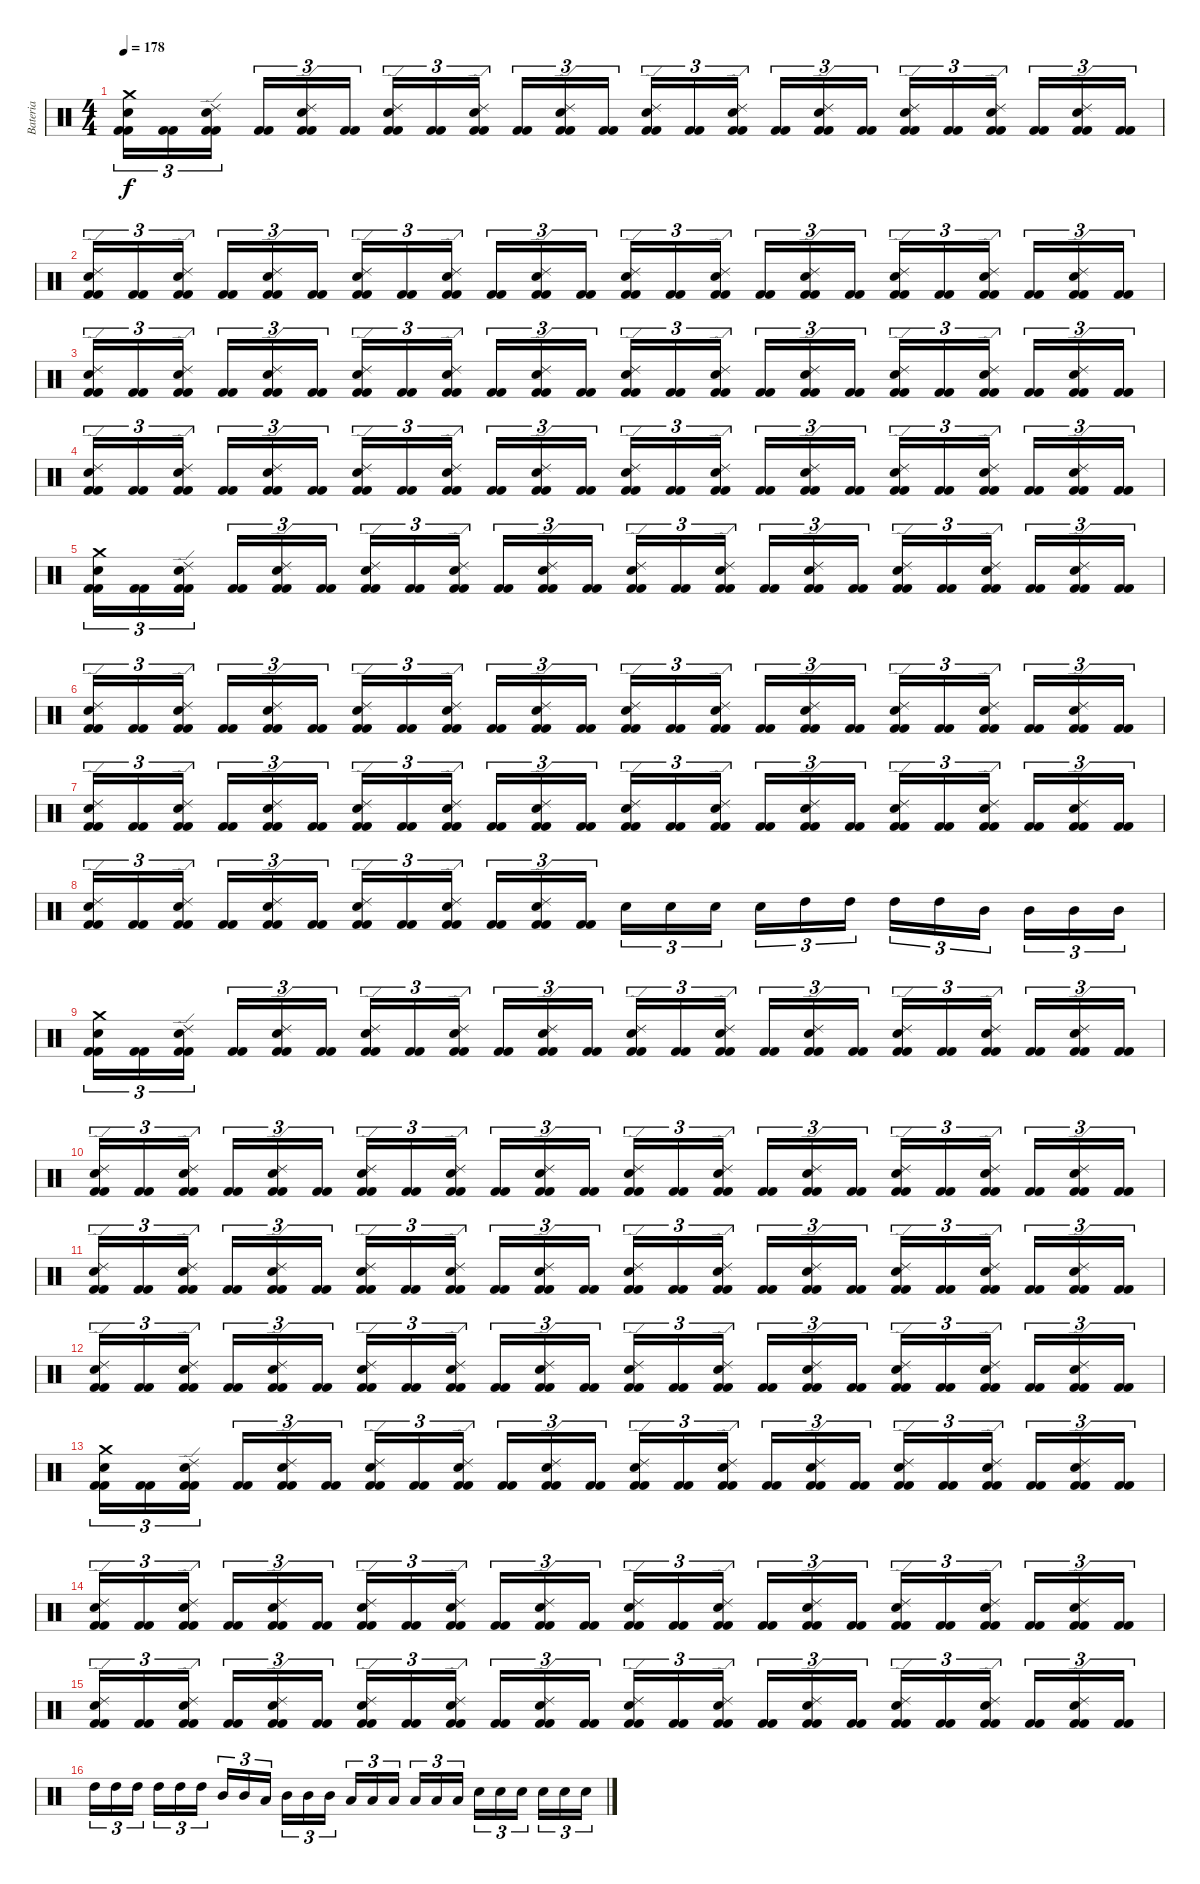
\track ("Bateria" "Bateria") {instrument percussion}
\staff {score}
\articulation defaults
\ts (4 4)
\tempo 178
\clef neutral
\ks c
("Kick (hit) 2" "Kick (hit) 2" "Snare (hit) 2" "Crash medium (hit)").16{tu (3 2) dy f} ("Kick (hit) 2" "Kick (hit) 2").16{tu (3 2)} ("Kick (hit) 2" "Kick (hit) 2" "Snare (hit) 2" "Ride (edge) 2").16{tu (3 2)} ("Kick (hit) 2" "Kick (hit) 2").16{tu (3 2)} ("Kick (hit) 2" "Kick (hit) 2" "Snare (hit) 2" "Ride (edge) 2").16{tu (3 2)} ("Kick (hit) 2" "Kick (hit) 2").16{tu (3 2)} ("Kick (hit) 2" "Kick (hit) 2" "Snare (hit) 2" "Ride (edge) 2").16{tu (3 2)} ("Kick (hit) 2" "Kick (hit) 2").16{tu (3 2)} ("Kick (hit) 2" "Kick (hit) 2" "Snare (hit) 2" "Ride (edge) 2").16{tu (3 2)} ("Kick (hit) 2" "Kick (hit) 2").16{tu (3 2)} ("Kick (hit) 2" "Kick (hit) 2" "Snare (hit) 2" "Ride (edge) 2").16{tu (3 2)} ("Kick (hit) 2" "Kick (hit) 2").16{tu (3 2)} ("Kick (hit) 2" "Kick (hit) 2" "Snare (hit) 2" "Ride (edge) 2").16{tu (3 2)} ("Kick (hit) 2" "Kick (hit) 2").16{tu (3 2)} ("Kick (hit) 2" "Kick (hit) 2" "Snare (hit) 2" "Ride (edge) 2").16{tu (3 2)} ("Kick (hit) 2" "Kick (hit) 2").16{tu (3 2)} ("Kick (hit) 2" "Kick (hit) 2" "Snare (hit) 2" "Ride (edge) 2").16{tu (3 2)} ("Kick (hit) 2" "Kick (hit) 2").16{tu (3 2)} ("Kick (hit) 2" "Kick (hit) 2" "Snare (hit) 2" "Ride (edge) 2").16{tu (3 2)} ("Kick (hit) 2" "Kick (hit) 2").16{tu (3 2)} ("Kick (hit) 2" "Kick (hit) 2" "Snare (hit) 2" "Ride (edge) 2").16{tu (3 2)} ("Kick (hit) 2" "Kick (hit) 2").16{tu (3 2)} ("Kick (hit) 2" "Kick (hit) 2" "Snare (hit) 2" "Ride (edge) 2").16{tu (3 2)} ("Kick (hit) 2" "Kick (hit) 2").16{tu (3 2)} |
("Kick (hit) 2" "Kick (hit) 2" "Snare (hit) 2" "Ride (edge) 2").16{tu (3 2)} ("Kick (hit) 2" "Kick (hit) 2").16{tu (3 2)} ("Kick (hit) 2" "Kick (hit) 2" "Snare (hit) 2" "Ride (edge) 2").16{tu (3 2)} ("Kick (hit) 2" "Kick (hit) 2").16{tu (3 2)} ("Kick (hit) 2" "Kick (hit) 2" "Snare (hit) 2" "Ride (edge) 2").16{tu (3 2)} ("Kick (hit) 2" "Kick (hit) 2").16{tu (3 2)} ("Kick (hit) 2" "Kick (hit) 2" "Snare (hit) 2" "Ride (edge) 2").16{tu (3 2)} ("Kick (hit) 2" "Kick (hit) 2").16{tu (3 2)} ("Kick (hit) 2" "Kick (hit) 2" "Snare (hit) 2" "Ride (edge) 2").16{tu (3 2)} ("Kick (hit) 2" "Kick (hit) 2").16{tu (3 2)} ("Kick (hit) 2" "Kick (hit) 2" "Snare (hit) 2" "Ride (edge) 2").16{tu (3 2)} ("Kick (hit) 2" "Kick (hit) 2").16{tu (3 2)} ("Kick (hit) 2" "Kick (hit) 2" "Snare (hit) 2" "Ride (edge) 2").16{tu (3 2)} ("Kick (hit) 2" "Kick (hit) 2").16{tu (3 2)} ("Kick (hit) 2" "Kick (hit) 2" "Snare (hit) 2" "Ride (edge) 2").16{tu (3 2)} ("Kick (hit) 2" "Kick (hit) 2").16{tu (3 2)} ("Kick (hit) 2" "Kick (hit) 2" "Snare (hit) 2" "Ride (edge) 2").16{tu (3 2)} ("Kick (hit) 2" "Kick (hit) 2").16{tu (3 2)} ("Kick (hit) 2" "Kick (hit) 2" "Snare (hit) 2" "Ride (edge) 2").16{tu (3 2)} ("Kick (hit) 2" "Kick (hit) 2").16{tu (3 2)} ("Kick (hit) 2" "Kick (hit) 2" "Snare (hit) 2" "Ride (edge) 2").16{tu (3 2)} ("Kick (hit) 2" "Kick (hit) 2").16{tu (3 2)} ("Kick (hit) 2" "Kick (hit) 2" "Snare (hit) 2" "Ride (edge) 2").16{tu (3 2)} ("Kick (hit) 2" "Kick (hit) 2").16{tu (3 2)} |
("Kick (hit) 2" "Kick (hit) 2" "Snare (hit) 2" "Ride (edge) 2").16{tu (3 2)} ("Kick (hit) 2" "Kick (hit) 2").16{tu (3 2)} ("Kick (hit) 2" "Kick (hit) 2" "Snare (hit) 2" "Ride (edge) 2").16{tu (3 2)} ("Kick (hit) 2" "Kick (hit) 2").16{tu (3 2)} ("Kick (hit) 2" "Kick (hit) 2" "Snare (hit) 2" "Ride (edge) 2").16{tu (3 2)} ("Kick (hit) 2" "Kick (hit) 2").16{tu (3 2)} ("Kick (hit) 2" "Kick (hit) 2" "Snare (hit) 2" "Ride (edge) 2").16{tu (3 2)} ("Kick (hit) 2" "Kick (hit) 2").16{tu (3 2)} ("Kick (hit) 2" "Kick (hit) 2" "Snare (hit) 2" "Ride (edge) 2").16{tu (3 2)} ("Kick (hit) 2" "Kick (hit) 2").16{tu (3 2)} ("Kick (hit) 2" "Kick (hit) 2" "Snare (hit) 2" "Ride (edge) 2").16{tu (3 2)} ("Kick (hit) 2" "Kick (hit) 2").16{tu (3 2)} ("Kick (hit) 2" "Kick (hit) 2" "Snare (hit) 2" "Ride (edge) 2").16{tu (3 2)} ("Kick (hit) 2" "Kick (hit) 2").16{tu (3 2)} ("Kick (hit) 2" "Kick (hit) 2" "Snare (hit) 2" "Ride (edge) 2").16{tu (3 2)} ("Kick (hit) 2" "Kick (hit) 2").16{tu (3 2)} ("Kick (hit) 2" "Kick (hit) 2" "Snare (hit) 2" "Ride (edge) 2").16{tu (3 2)} ("Kick (hit) 2" "Kick (hit) 2").16{tu (3 2)} ("Kick (hit) 2" "Kick (hit) 2" "Snare (hit) 2" "Ride (edge) 2").16{tu (3 2)} ("Kick (hit) 2" "Kick (hit) 2").16{tu (3 2)} ("Kick (hit) 2" "Kick (hit) 2" "Snare (hit) 2" "Ride (edge) 2").16{tu (3 2)} ("Kick (hit) 2" "Kick (hit) 2").16{tu (3 2)} ("Kick (hit) 2" "Kick (hit) 2" "Snare (hit) 2" "Ride (edge) 2").16{tu (3 2)} ("Kick (hit) 2" "Kick (hit) 2").16{tu (3 2)} |
("Kick (hit) 2" "Kick (hit) 2" "Snare (hit) 2" "Ride (edge) 2").16{tu (3 2)} ("Kick (hit) 2" "Kick (hit) 2").16{tu (3 2)} ("Kick (hit) 2" "Kick (hit) 2" "Snare (hit) 2" "Ride (edge) 2").16{tu (3 2)} ("Kick (hit) 2" "Kick (hit) 2").16{tu (3 2)} ("Kick (hit) 2" "Kick (hit) 2" "Snare (hit) 2" "Ride (edge) 2").16{tu (3 2)} ("Kick (hit) 2" "Kick (hit) 2").16{tu (3 2)} ("Kick (hit) 2" "Kick (hit) 2" "Snare (hit) 2" "Ride (edge) 2").16{tu (3 2)} ("Kick (hit) 2" "Kick (hit) 2").16{tu (3 2)} ("Kick (hit) 2" "Kick (hit) 2" "Snare (hit) 2" "Ride (edge) 2").16{tu (3 2)} ("Kick (hit) 2" "Kick (hit) 2").16{tu (3 2)} ("Kick (hit) 2" "Kick (hit) 2" "Snare (hit) 2" "Ride (edge) 2").16{tu (3 2)} ("Kick (hit) 2" "Kick (hit) 2").16{tu (3 2)} ("Kick (hit) 2" "Kick (hit) 2" "Snare (hit) 2" "Ride (edge) 2").16{tu (3 2)} ("Kick (hit) 2" "Kick (hit) 2").16{tu (3 2)} ("Kick (hit) 2" "Kick (hit) 2" "Snare (hit) 2" "Ride (edge) 2").16{tu (3 2)} ("Kick (hit) 2" "Kick (hit) 2").16{tu (3 2)} ("Kick (hit) 2" "Kick (hit) 2" "Snare (hit) 2" "Ride (edge) 2").16{tu (3 2)} ("Kick (hit) 2" "Kick (hit) 2").16{tu (3 2)} ("Kick (hit) 2" "Kick (hit) 2" "Snare (hit) 2" "Ride (edge) 2").16{tu (3 2)} ("Kick (hit) 2" "Kick (hit) 2").16{tu (3 2)} ("Kick (hit) 2" "Kick (hit) 2" "Snare (hit) 2" "Ride (edge) 2").16{tu (3 2)} ("Kick (hit) 2" "Kick (hit) 2").16{tu (3 2)} ("Kick (hit) 2" "Kick (hit) 2" "Snare (hit) 2" "Ride (edge) 2").16{tu (3 2)} ("Kick (hit) 2" "Kick (hit) 2").16{tu (3 2)} |
("Kick (hit) 2" "Kick (hit) 2" "Snare (hit) 2" "Crash medium (hit)").16{tu (3 2)} ("Kick (hit) 2" "Kick (hit) 2").16{tu (3 2)} ("Kick (hit) 2" "Kick (hit) 2" "Snare (hit) 2" "Ride (edge) 2").16{tu (3 2)} ("Kick (hit) 2" "Kick (hit) 2").16{tu (3 2)} ("Kick (hit) 2" "Kick (hit) 2" "Snare (hit) 2" "Ride (edge) 2").16{tu (3 2)} ("Kick (hit) 2" "Kick (hit) 2").16{tu (3 2)} ("Kick (hit) 2" "Kick (hit) 2" "Snare (hit) 2" "Ride (edge) 2").16{tu (3 2)} ("Kick (hit) 2" "Kick (hit) 2").16{tu (3 2)} ("Kick (hit) 2" "Kick (hit) 2" "Snare (hit) 2" "Ride (edge) 2").16{tu (3 2)} ("Kick (hit) 2" "Kick (hit) 2").16{tu (3 2)} ("Kick (hit) 2" "Kick (hit) 2" "Snare (hit) 2" "Ride (edge) 2").16{tu (3 2)} ("Kick (hit) 2" "Kick (hit) 2").16{tu (3 2)} ("Kick (hit) 2" "Kick (hit) 2" "Snare (hit) 2" "Ride (edge) 2").16{tu (3 2)} ("Kick (hit) 2" "Kick (hit) 2").16{tu (3 2)} ("Kick (hit) 2" "Kick (hit) 2" "Snare (hit) 2" "Ride (edge) 2").16{tu (3 2)} ("Kick (hit) 2" "Kick (hit) 2").16{tu (3 2)} ("Kick (hit) 2" "Kick (hit) 2" "Snare (hit) 2" "Ride (edge) 2").16{tu (3 2)} ("Kick (hit) 2" "Kick (hit) 2").16{tu (3 2)} ("Kick (hit) 2" "Kick (hit) 2" "Snare (hit) 2" "Ride (edge) 2").16{tu (3 2)} ("Kick (hit) 2" "Kick (hit) 2").16{tu (3 2)} ("Kick (hit) 2" "Kick (hit) 2" "Snare (hit) 2" "Ride (edge) 2").16{tu (3 2)} ("Kick (hit) 2" "Kick (hit) 2").16{tu (3 2)} ("Kick (hit) 2" "Kick (hit) 2" "Snare (hit) 2" "Ride (edge) 2").16{tu (3 2)} ("Kick (hit) 2" "Kick (hit) 2").16{tu (3 2)} |
("Kick (hit) 2" "Kick (hit) 2" "Snare (hit) 2" "Ride (edge) 2").16{tu (3 2)} ("Kick (hit) 2" "Kick (hit) 2").16{tu (3 2)} ("Kick (hit) 2" "Kick (hit) 2" "Snare (hit) 2" "Ride (edge) 2").16{tu (3 2)} ("Kick (hit) 2" "Kick (hit) 2").16{tu (3 2)} ("Kick (hit) 2" "Kick (hit) 2" "Snare (hit) 2" "Ride (edge) 2").16{tu (3 2)} ("Kick (hit) 2" "Kick (hit) 2").16{tu (3 2)} ("Kick (hit) 2" "Kick (hit) 2" "Snare (hit) 2" "Ride (edge) 2").16{tu (3 2)} ("Kick (hit) 2" "Kick (hit) 2").16{tu (3 2)} ("Kick (hit) 2" "Kick (hit) 2" "Snare (hit) 2" "Ride (edge) 2").16{tu (3 2)} ("Kick (hit) 2" "Kick (hit) 2").16{tu (3 2)} ("Kick (hit) 2" "Kick (hit) 2" "Snare (hit) 2" "Ride (edge) 2").16{tu (3 2)} ("Kick (hit) 2" "Kick (hit) 2").16{tu (3 2)} ("Kick (hit) 2" "Kick (hit) 2" "Snare (hit) 2" "Ride (edge) 2").16{tu (3 2)} ("Kick (hit) 2" "Kick (hit) 2").16{tu (3 2)} ("Kick (hit) 2" "Kick (hit) 2" "Snare (hit) 2" "Ride (edge) 2").16{tu (3 2)} ("Kick (hit) 2" "Kick (hit) 2").16{tu (3 2)} ("Kick (hit) 2" "Kick (hit) 2" "Snare (hit) 2" "Ride (edge) 2").16{tu (3 2)} ("Kick (hit) 2" "Kick (hit) 2").16{tu (3 2)} ("Kick (hit) 2" "Kick (hit) 2" "Snare (hit) 2" "Ride (edge) 2").16{tu (3 2)} ("Kick (hit) 2" "Kick (hit) 2").16{tu (3 2)} ("Kick (hit) 2" "Kick (hit) 2" "Snare (hit) 2" "Ride (edge) 2").16{tu (3 2)} ("Kick (hit) 2" "Kick (hit) 2").16{tu (3 2)} ("Kick (hit) 2" "Kick (hit) 2" "Snare (hit) 2" "Ride (edge) 2").16{tu (3 2)} ("Kick (hit) 2" "Kick (hit) 2").16{tu (3 2)} |
("Kick (hit) 2" "Kick (hit) 2" "Snare (hit) 2" "Ride (edge) 2").16{tu (3 2)} ("Kick (hit) 2" "Kick (hit) 2").16{tu (3 2)} ("Kick (hit) 2" "Kick (hit) 2" "Snare (hit) 2" "Ride (edge) 2").16{tu (3 2)} ("Kick (hit) 2" "Kick (hit) 2").16{tu (3 2)} ("Kick (hit) 2" "Kick (hit) 2" "Snare (hit) 2" "Ride (edge) 2").16{tu (3 2)} ("Kick (hit) 2" "Kick (hit) 2").16{tu (3 2)} ("Kick (hit) 2" "Kick (hit) 2" "Snare (hit) 2" "Ride (edge) 2").16{tu (3 2)} ("Kick (hit) 2" "Kick (hit) 2").16{tu (3 2)} ("Kick (hit) 2" "Kick (hit) 2" "Snare (hit) 2" "Ride (edge) 2").16{tu (3 2)} ("Kick (hit) 2" "Kick (hit) 2").16{tu (3 2)} ("Kick (hit) 2" "Kick (hit) 2" "Snare (hit) 2" "Ride (edge) 2").16{tu (3 2)} ("Kick (hit) 2" "Kick (hit) 2").16{tu (3 2)} ("Kick (hit) 2" "Kick (hit) 2" "Snare (hit) 2" "Ride (edge) 2").16{tu (3 2)} ("Kick (hit) 2" "Kick (hit) 2").16{tu (3 2)} ("Kick (hit) 2" "Kick (hit) 2" "Snare (hit) 2" "Ride (edge) 2").16{tu (3 2)} ("Kick (hit) 2" "Kick (hit) 2").16{tu (3 2)} ("Kick (hit) 2" "Kick (hit) 2" "Snare (hit) 2" "Ride (edge) 2").16{tu (3 2)} ("Kick (hit) 2" "Kick (hit) 2").16{tu (3 2)} ("Kick (hit) 2" "Kick (hit) 2" "Snare (hit) 2" "Ride (edge) 2").16{tu (3 2)} ("Kick (hit) 2" "Kick (hit) 2").16{tu (3 2)} ("Kick (hit) 2" "Kick (hit) 2" "Snare (hit) 2" "Ride (edge) 2").16{tu (3 2)} ("Kick (hit) 2" "Kick (hit) 2").16{tu (3 2)} ("Kick (hit) 2" "Kick (hit) 2" "Snare (hit) 2" "Ride (edge) 2").16{tu (3 2)} ("Kick (hit) 2" "Kick (hit) 2").16{tu (3 2)} |
("Kick (hit) 2" "Kick (hit) 2" "Snare (hit) 2" "Ride (edge) 2").16{tu (3 2)} ("Kick (hit) 2" "Kick (hit) 2").16{tu (3 2)} ("Kick (hit) 2" "Kick (hit) 2" "Snare (hit) 2" "Ride (edge) 2").16{tu (3 2)} ("Kick (hit) 2" "Kick (hit) 2").16{tu (3 2)} ("Kick (hit) 2" "Kick (hit) 2" "Snare (hit) 2" "Ride (edge) 2").16{tu (3 2)} ("Kick (hit) 2" "Kick (hit) 2").16{tu (3 2)} ("Kick (hit) 2" "Kick (hit) 2" "Snare (hit) 2" "Ride (edge) 2").16{tu (3 2)} ("Kick (hit) 2" "Kick (hit) 2").16{tu (3 2)} ("Kick (hit) 2" "Kick (hit) 2" "Snare (hit) 2" "Ride (edge) 2").16{tu (3 2)} ("Kick (hit) 2" "Kick (hit) 2").16{tu (3 2)} ("Kick (hit) 2" "Kick (hit) 2" "Snare (hit) 2" "Ride (edge) 2").16{tu (3 2)} ("Kick (hit) 2" "Kick (hit) 2").16{tu (3 2)} "Snare (hit) 2".16{tu (3 2)} "Snare (hit) 2".16{tu (3 2)} "Snare (hit) 2".16{tu (3 2)} "Snare (hit) 2".16{tu (3 2)} "High Tom (hit)".16{tu (3 2)} "High Tom (hit)".16{tu (3 2)} "High Tom (hit)".16{tu (3 2)} "High Tom (hit)".16{tu (3 2)} "Mid Tom (hit)".16{tu (3 2)} "Mid Tom (hit)".16{tu (3 2)} "Mid Tom (hit)".16{tu (3 2)} "Mid Tom (hit)".16{tu (3 2)} |
("Kick (hit) 2" "Kick (hit) 2" "Snare (hit) 2" "Crash medium (hit)").16{tu (3 2)} ("Kick (hit) 2" "Kick (hit) 2").16{tu (3 2)} ("Kick (hit) 2" "Kick (hit) 2" "Snare (hit) 2" "Ride (edge) 2").16{tu (3 2)} ("Kick (hit) 2" "Kick (hit) 2").16{tu (3 2)} ("Kick (hit) 2" "Kick (hit) 2" "Snare (hit) 2" "Ride (edge) 2").16{tu (3 2)} ("Kick (hit) 2" "Kick (hit) 2").16{tu (3 2)} ("Kick (hit) 2" "Kick (hit) 2" "Snare (hit) 2" "Ride (edge) 2").16{tu (3 2)} ("Kick (hit) 2" "Kick (hit) 2").16{tu (3 2)} ("Kick (hit) 2" "Kick (hit) 2" "Snare (hit) 2" "Ride (edge) 2").16{tu (3 2)} ("Kick (hit) 2" "Kick (hit) 2").16{tu (3 2)} ("Kick (hit) 2" "Kick (hit) 2" "Snare (hit) 2" "Ride (edge) 2").16{tu (3 2)} ("Kick (hit) 2" "Kick (hit) 2").16{tu (3 2)} ("Kick (hit) 2" "Kick (hit) 2" "Snare (hit) 2" "Ride (edge) 2").16{tu (3 2)} ("Kick (hit) 2" "Kick (hit) 2").16{tu (3 2)} ("Kick (hit) 2" "Kick (hit) 2" "Snare (hit) 2" "Ride (edge) 2").16{tu (3 2)} ("Kick (hit) 2" "Kick (hit) 2").16{tu (3 2)} ("Kick (hit) 2" "Kick (hit) 2" "Snare (hit) 2" "Ride (edge) 2").16{tu (3 2)} ("Kick (hit) 2" "Kick (hit) 2").16{tu (3 2)} ("Kick (hit) 2" "Kick (hit) 2" "Snare (hit) 2" "Ride (edge) 2").16{tu (3 2)} ("Kick (hit) 2" "Kick (hit) 2").16{tu (3 2)} ("Kick (hit) 2" "Kick (hit) 2" "Snare (hit) 2" "Ride (edge) 2").16{tu (3 2)} ("Kick (hit) 2" "Kick (hit) 2").16{tu (3 2)} ("Kick (hit) 2" "Kick (hit) 2" "Snare (hit) 2" "Ride (edge) 2").16{tu (3 2)} ("Kick (hit) 2" "Kick (hit) 2").16{tu (3 2)} |
("Kick (hit) 2" "Kick (hit) 2" "Snare (hit) 2" "Ride (edge) 2").16{tu (3 2)} ("Kick (hit) 2" "Kick (hit) 2").16{tu (3 2)} ("Kick (hit) 2" "Kick (hit) 2" "Snare (hit) 2" "Ride (edge) 2").16{tu (3 2)} ("Kick (hit) 2" "Kick (hit) 2").16{tu (3 2)} ("Kick (hit) 2" "Kick (hit) 2" "Snare (hit) 2" "Ride (edge) 2").16{tu (3 2)} ("Kick (hit) 2" "Kick (hit) 2").16{tu (3 2)} ("Kick (hit) 2" "Kick (hit) 2" "Snare (hit) 2" "Ride (edge) 2").16{tu (3 2)} ("Kick (hit) 2" "Kick (hit) 2").16{tu (3 2)} ("Kick (hit) 2" "Kick (hit) 2" "Snare (hit) 2" "Ride (edge) 2").16{tu (3 2)} ("Kick (hit) 2" "Kick (hit) 2").16{tu (3 2)} ("Kick (hit) 2" "Kick (hit) 2" "Snare (hit) 2" "Ride (edge) 2").16{tu (3 2)} ("Kick (hit) 2" "Kick (hit) 2").16{tu (3 2)} ("Kick (hit) 2" "Kick (hit) 2" "Snare (hit) 2" "Ride (edge) 2").16{tu (3 2)} ("Kick (hit) 2" "Kick (hit) 2").16{tu (3 2)} ("Kick (hit) 2" "Kick (hit) 2" "Snare (hit) 2" "Ride (edge) 2").16{tu (3 2)} ("Kick (hit) 2" "Kick (hit) 2").16{tu (3 2)} ("Kick (hit) 2" "Kick (hit) 2" "Snare (hit) 2" "Ride (edge) 2").16{tu (3 2)} ("Kick (hit) 2" "Kick (hit) 2").16{tu (3 2)} ("Kick (hit) 2" "Kick (hit) 2" "Snare (hit) 2" "Ride (edge) 2").16{tu (3 2)} ("Kick (hit) 2" "Kick (hit) 2").16{tu (3 2)} ("Kick (hit) 2" "Kick (hit) 2" "Snare (hit) 2" "Ride (edge) 2").16{tu (3 2)} ("Kick (hit) 2" "Kick (hit) 2").16{tu (3 2)} ("Kick (hit) 2" "Kick (hit) 2" "Snare (hit) 2" "Ride (edge) 2").16{tu (3 2)} ("Kick (hit) 2" "Kick (hit) 2").16{tu (3 2)} |
("Kick (hit) 2" "Kick (hit) 2" "Snare (hit) 2" "Ride (edge) 2").16{tu (3 2)} ("Kick (hit) 2" "Kick (hit) 2").16{tu (3 2)} ("Kick (hit) 2" "Kick (hit) 2" "Snare (hit) 2" "Ride (edge) 2").16{tu (3 2)} ("Kick (hit) 2" "Kick (hit) 2").16{tu (3 2)} ("Kick (hit) 2" "Kick (hit) 2" "Snare (hit) 2" "Ride (edge) 2").16{tu (3 2)} ("Kick (hit) 2" "Kick (hit) 2").16{tu (3 2)} ("Kick (hit) 2" "Kick (hit) 2" "Snare (hit) 2" "Ride (edge) 2").16{tu (3 2)} ("Kick (hit) 2" "Kick (hit) 2").16{tu (3 2)} ("Kick (hit) 2" "Kick (hit) 2" "Snare (hit) 2" "Ride (edge) 2").16{tu (3 2)} ("Kick (hit) 2" "Kick (hit) 2").16{tu (3 2)} ("Kick (hit) 2" "Kick (hit) 2" "Snare (hit) 2" "Ride (edge) 2").16{tu (3 2)} ("Kick (hit) 2" "Kick (hit) 2").16{tu (3 2)} ("Kick (hit) 2" "Kick (hit) 2" "Snare (hit) 2" "Ride (edge) 2").16{tu (3 2)} ("Kick (hit) 2" "Kick (hit) 2").16{tu (3 2)} ("Kick (hit) 2" "Kick (hit) 2" "Snare (hit) 2" "Ride (edge) 2").16{tu (3 2)} ("Kick (hit) 2" "Kick (hit) 2").16{tu (3 2)} ("Kick (hit) 2" "Kick (hit) 2" "Snare (hit) 2" "Ride (edge) 2").16{tu (3 2)} ("Kick (hit) 2" "Kick (hit) 2").16{tu (3 2)} ("Kick (hit) 2" "Kick (hit) 2" "Snare (hit) 2" "Ride (edge) 2").16{tu (3 2)} ("Kick (hit) 2" "Kick (hit) 2").16{tu (3 2)} ("Kick (hit) 2" "Kick (hit) 2" "Snare (hit) 2" "Ride (edge) 2").16{tu (3 2)} ("Kick (hit) 2" "Kick (hit) 2").16{tu (3 2)} ("Kick (hit) 2" "Kick (hit) 2" "Snare (hit) 2" "Ride (edge) 2").16{tu (3 2)} ("Kick (hit) 2" "Kick (hit) 2").16{tu (3 2)} |
("Kick (hit) 2" "Kick (hit) 2" "Snare (hit) 2" "Ride (edge) 2").16{tu (3 2)} ("Kick (hit) 2" "Kick (hit) 2").16{tu (3 2)} ("Kick (hit) 2" "Kick (hit) 2" "Snare (hit) 2" "Ride (edge) 2").16{tu (3 2)} ("Kick (hit) 2" "Kick (hit) 2").16{tu (3 2)} ("Kick (hit) 2" "Kick (hit) 2" "Snare (hit) 2" "Ride (edge) 2").16{tu (3 2)} ("Kick (hit) 2" "Kick (hit) 2").16{tu (3 2)} ("Kick (hit) 2" "Kick (hit) 2" "Snare (hit) 2" "Ride (edge) 2").16{tu (3 2)} ("Kick (hit) 2" "Kick (hit) 2").16{tu (3 2)} ("Kick (hit) 2" "Kick (hit) 2" "Snare (hit) 2" "Ride (edge) 2").16{tu (3 2)} ("Kick (hit) 2" "Kick (hit) 2").16{tu (3 2)} ("Kick (hit) 2" "Kick (hit) 2" "Snare (hit) 2" "Ride (edge) 2").16{tu (3 2)} ("Kick (hit) 2" "Kick (hit) 2").16{tu (3 2)} ("Kick (hit) 2" "Kick (hit) 2" "Snare (hit) 2" "Ride (edge) 2").16{tu (3 2)} ("Kick (hit) 2" "Kick (hit) 2").16{tu (3 2)} ("Kick (hit) 2" "Kick (hit) 2" "Snare (hit) 2" "Ride (edge) 2").16{tu (3 2)} ("Kick (hit) 2" "Kick (hit) 2").16{tu (3 2)} ("Kick (hit) 2" "Kick (hit) 2" "Snare (hit) 2" "Ride (edge) 2").16{tu (3 2)} ("Kick (hit) 2" "Kick (hit) 2").16{tu (3 2)} ("Kick (hit) 2" "Kick (hit) 2" "Snare (hit) 2" "Ride (edge) 2").16{tu (3 2)} ("Kick (hit) 2" "Kick (hit) 2").16{tu (3 2)} ("Kick (hit) 2" "Kick (hit) 2" "Snare (hit) 2" "Ride (edge) 2").16{tu (3 2)} ("Kick (hit) 2" "Kick (hit) 2").16{tu (3 2)} ("Kick (hit) 2" "Kick (hit) 2" "Snare (hit) 2" "Ride (edge) 2").16{tu (3 2)} ("Kick (hit) 2" "Kick (hit) 2").16{tu (3 2)} |
("Kick (hit) 2" "Kick (hit) 2" "Snare (hit) 2" "Crash medium (hit)").16{tu (3 2)} ("Kick (hit) 2" "Kick (hit) 2").16{tu (3 2)} ("Kick (hit) 2" "Kick (hit) 2" "Snare (hit) 2" "Ride (edge) 2").16{tu (3 2)} ("Kick (hit) 2" "Kick (hit) 2").16{tu (3 2)} ("Kick (hit) 2" "Kick (hit) 2" "Snare (hit) 2" "Ride (edge) 2").16{tu (3 2)} ("Kick (hit) 2" "Kick (hit) 2").16{tu (3 2)} ("Kick (hit) 2" "Kick (hit) 2" "Snare (hit) 2" "Ride (edge) 2").16{tu (3 2)} ("Kick (hit) 2" "Kick (hit) 2").16{tu (3 2)} ("Kick (hit) 2" "Kick (hit) 2" "Snare (hit) 2" "Ride (edge) 2").16{tu (3 2)} ("Kick (hit) 2" "Kick (hit) 2").16{tu (3 2)} ("Kick (hit) 2" "Kick (hit) 2" "Snare (hit) 2" "Ride (edge) 2").16{tu (3 2)} ("Kick (hit) 2" "Kick (hit) 2").16{tu (3 2)} ("Kick (hit) 2" "Kick (hit) 2" "Snare (hit) 2" "Ride (edge) 2").16{tu (3 2)} ("Kick (hit) 2" "Kick (hit) 2").16{tu (3 2)} ("Kick (hit) 2" "Kick (hit) 2" "Snare (hit) 2" "Ride (edge) 2").16{tu (3 2)} ("Kick (hit) 2" "Kick (hit) 2").16{tu (3 2)} ("Kick (hit) 2" "Kick (hit) 2" "Snare (hit) 2" "Ride (edge) 2").16{tu (3 2)} ("Kick (hit) 2" "Kick (hit) 2").16{tu (3 2)} ("Kick (hit) 2" "Kick (hit) 2" "Snare (hit) 2" "Ride (edge) 2").16{tu (3 2)} ("Kick (hit) 2" "Kick (hit) 2").16{tu (3 2)} ("Kick (hit) 2" "Kick (hit) 2" "Snare (hit) 2" "Ride (edge) 2").16{tu (3 2)} ("Kick (hit) 2" "Kick (hit) 2").16{tu (3 2)} ("Kick (hit) 2" "Kick (hit) 2" "Snare (hit) 2" "Ride (edge) 2").16{tu (3 2)} ("Kick (hit) 2" "Kick (hit) 2").16{tu (3 2)} |
("Kick (hit) 2" "Kick (hit) 2" "Snare (hit) 2" "Ride (edge) 2").16{tu (3 2)} ("Kick (hit) 2" "Kick (hit) 2").16{tu (3 2)} ("Kick (hit) 2" "Kick (hit) 2" "Snare (hit) 2" "Ride (edge) 2").16{tu (3 2)} ("Kick (hit) 2" "Kick (hit) 2").16{tu (3 2)} ("Kick (hit) 2" "Kick (hit) 2" "Snare (hit) 2" "Ride (edge) 2").16{tu (3 2)} ("Kick (hit) 2" "Kick (hit) 2").16{tu (3 2)} ("Kick (hit) 2" "Kick (hit) 2" "Snare (hit) 2" "Ride (edge) 2").16{tu (3 2)} ("Kick (hit) 2" "Kick (hit) 2").16{tu (3 2)} ("Kick (hit) 2" "Kick (hit) 2" "Snare (hit) 2" "Ride (edge) 2").16{tu (3 2)} ("Kick (hit) 2" "Kick (hit) 2").16{tu (3 2)} ("Kick (hit) 2" "Kick (hit) 2" "Snare (hit) 2" "Ride (edge) 2").16{tu (3 2)} ("Kick (hit) 2" "Kick (hit) 2").16{tu (3 2)} ("Kick (hit) 2" "Kick (hit) 2" "Snare (hit) 2" "Ride (edge) 2").16{tu (3 2)} ("Kick (hit) 2" "Kick (hit) 2").16{tu (3 2)} ("Kick (hit) 2" "Kick (hit) 2" "Snare (hit) 2" "Ride (edge) 2").16{tu (3 2)} ("Kick (hit) 2" "Kick (hit) 2").16{tu (3 2)} ("Kick (hit) 2" "Kick (hit) 2" "Snare (hit) 2" "Ride (edge) 2").16{tu (3 2)} ("Kick (hit) 2" "Kick (hit) 2").16{tu (3 2)} ("Kick (hit) 2" "Kick (hit) 2" "Snare (hit) 2" "Ride (edge) 2").16{tu (3 2)} ("Kick (hit) 2" "Kick (hit) 2").16{tu (3 2)} ("Kick (hit) 2" "Kick (hit) 2" "Snare (hit) 2" "Ride (edge) 2").16{tu (3 2)} ("Kick (hit) 2" "Kick (hit) 2").16{tu (3 2)} ("Kick (hit) 2" "Kick (hit) 2" "Snare (hit) 2" "Ride (edge) 2").16{tu (3 2)} ("Kick (hit) 2" "Kick (hit) 2").16{tu (3 2)} |
("Kick (hit) 2" "Kick (hit) 2" "Snare (hit) 2" "Ride (edge) 2").16{tu (3 2)} ("Kick (hit) 2" "Kick (hit) 2").16{tu (3 2)} ("Kick (hit) 2" "Kick (hit) 2" "Snare (hit) 2" "Ride (edge) 2").16{tu (3 2)} ("Kick (hit) 2" "Kick (hit) 2").16{tu (3 2)} ("Kick (hit) 2" "Kick (hit) 2" "Snare (hit) 2" "Ride (edge) 2").16{tu (3 2)} ("Kick (hit) 2" "Kick (hit) 2").16{tu (3 2)} ("Kick (hit) 2" "Kick (hit) 2" "Snare (hit) 2" "Ride (edge) 2").16{tu (3 2)} ("Kick (hit) 2" "Kick (hit) 2").16{tu (3 2)} ("Kick (hit) 2" "Kick (hit) 2" "Snare (hit) 2" "Ride (edge) 2").16{tu (3 2)} ("Kick (hit) 2" "Kick (hit) 2").16{tu (3 2)} ("Kick (hit) 2" "Kick (hit) 2" "Snare (hit) 2" "Ride (edge) 2").16{tu (3 2)} ("Kick (hit) 2" "Kick (hit) 2").16{tu (3 2)} ("Kick (hit) 2" "Kick (hit) 2" "Snare (hit) 2" "Ride (edge) 2").16{tu (3 2)} ("Kick (hit) 2" "Kick (hit) 2").16{tu (3 2)} ("Kick (hit) 2" "Kick (hit) 2" "Snare (hit) 2" "Ride (edge) 2").16{tu (3 2)} ("Kick (hit) 2" "Kick (hit) 2").16{tu (3 2)} ("Kick (hit) 2" "Kick (hit) 2" "Snare (hit) 2" "Ride (edge) 2").16{tu (3 2)} ("Kick (hit) 2" "Kick (hit) 2").16{tu (3 2)} ("Kick (hit) 2" "Kick (hit) 2" "Snare (hit) 2" "Ride (edge) 2").16{tu (3 2)} ("Kick (hit) 2" "Kick (hit) 2").16{tu (3 2)} ("Kick (hit) 2" "Kick (hit) 2" "Snare (hit) 2" "Ride (edge) 2").16{tu (3 2)} ("Kick (hit) 2" "Kick (hit) 2").16{tu (3 2)} ("Kick (hit) 2" "Kick (hit) 2" "Snare (hit) 2" "Ride (edge) 2").16{tu (3 2)} ("Kick (hit) 2" "Kick (hit) 2").16{tu (3 2)} |
"High Tom (hit)".16{tu (3 2)} "High Tom (hit)".16{tu (3 2)} "High Tom (hit)".16{tu (3 2)} "High Tom (hit)".16{tu (3 2)} "High Tom (hit)".16{tu (3 2)} "High Tom (hit)".16{tu (3 2)} "Mid Tom (hit)".16{tu (3 2)} "Mid Tom (hit)".16{tu (3 2)} "Low Tom (hit)".16{tu (3 2)} "Mid Tom (hit)".16{tu (3 2)} "Mid Tom (hit)".16{tu (3 2)} "Mid Tom (hit)".16{tu (3 2)} "Low Tom (hit)".16{tu (3 2)} "Low Tom (hit)".16{tu (3 2)} "Low Tom (hit)".16{tu (3 2)} "Low Tom (hit)".16{tu (3 2)} "Low Tom (hit)".16{tu (3 2)} "Low Tom (hit)".16{tu (3 2)} "Snare (hit) 2".16{tu (3 2)} "Snare (hit) 2".16{tu (3 2)} "Snare (hit) 2".16{tu (3 2)} "Snare (hit) 2".16{tu (3 2)} "Snare (hit) 2".16{tu (3 2)} "Snare (hit) 2".16{tu (3 2)}
